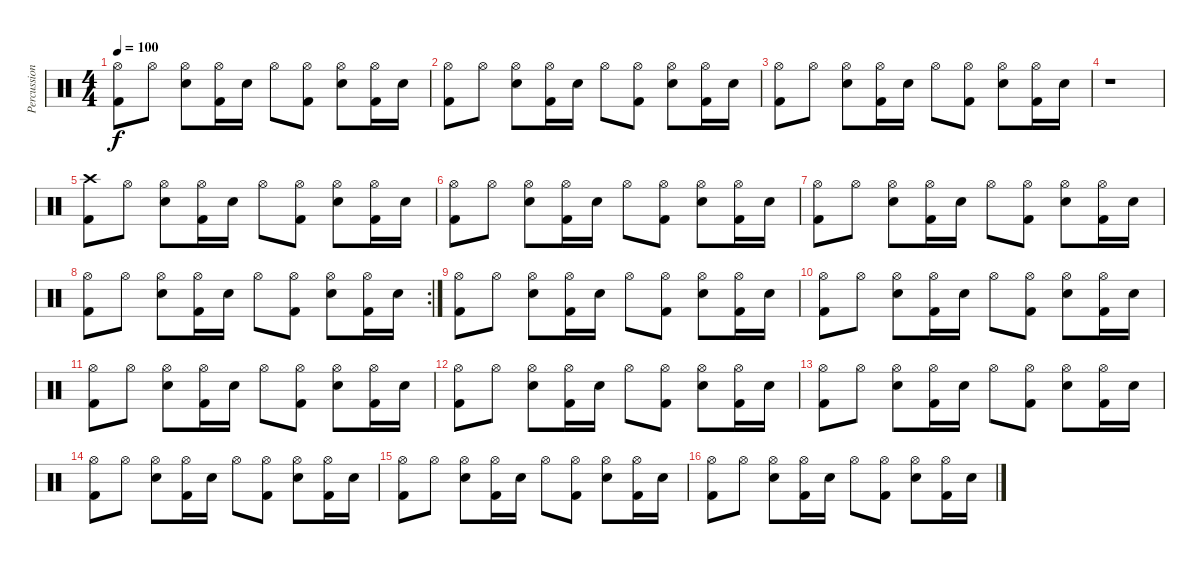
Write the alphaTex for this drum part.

\track ("Percussion" "Percussion") {instrument percussion}
\staff {score}
\articulation defaults
\ts (4 4)
\tempo 100
\clef neutral
\ks c
("Hi-Hat (open)" "Kick (hit) 2").8{dy f} "Hi-Hat (open)".8 ("Hi-Hat (open)" "Electric Snare (hit)").8 ("Hi-Hat (open)" "Kick (hit) 2").16 "Electric Snare (hit)".16 "Hi-Hat (open)".8 ("Hi-Hat (open)" "Kick (hit) 2").8 ("Hi-Hat (open)" "Electric Snare (hit)").8 ("Hi-Hat (open)" "Kick (hit) 2").16 "Electric Snare (hit)".16 |
("Hi-Hat (open)" "Kick (hit) 2").8 "Hi-Hat (open)".8 ("Hi-Hat (open)" "Electric Snare (hit)").8 ("Hi-Hat (open)" "Kick (hit) 2").16 "Electric Snare (hit)".16 "Hi-Hat (open)".8 ("Hi-Hat (open)" "Kick (hit) 2").8 ("Hi-Hat (open)" "Electric Snare (hit)").8 ("Hi-Hat (open)" "Kick (hit) 2").16 "Electric Snare (hit)".16 |
("Hi-Hat (open)" "Kick (hit) 2").8 "Hi-Hat (open)".8 ("Hi-Hat (open)" "Electric Snare (hit)").8 ("Hi-Hat (open)" "Kick (hit) 2").16 "Electric Snare (hit)".16 "Hi-Hat (open)".8 ("Hi-Hat (open)" "Kick (hit) 2").8 ("Hi-Hat (open)" "Electric Snare (hit)").8 ("Hi-Hat (open)" "Kick (hit) 2").16 "Electric Snare (hit)".16 |
r.1 |
("Crash high (hit)" "Kick (hit) 2").8 "Hi-Hat (open)".8 ("Hi-Hat (open)" "Electric Snare (hit)").8 ("Hi-Hat (open)" "Kick (hit) 2").16 "Electric Snare (hit)".16 "Hi-Hat (open)".8 ("Hi-Hat (open)" "Kick (hit) 2").8 ("Hi-Hat (open)" "Electric Snare (hit)").8 ("Hi-Hat (open)" "Kick (hit) 2").16 "Electric Snare (hit)".16 |
("Hi-Hat (open)" "Kick (hit) 2").8 "Hi-Hat (open)".8 ("Hi-Hat (open)" "Electric Snare (hit)").8 ("Hi-Hat (open)" "Kick (hit) 2").16 "Electric Snare (hit)".16 "Hi-Hat (open)".8 ("Hi-Hat (open)" "Kick (hit) 2").8 ("Hi-Hat (open)" "Electric Snare (hit)").8 ("Hi-Hat (open)" "Kick (hit) 2").16 "Electric Snare (hit)".16 |
("Hi-Hat (open)" "Kick (hit) 2").8 "Hi-Hat (open)".8 ("Hi-Hat (open)" "Electric Snare (hit)").8 ("Hi-Hat (open)" "Kick (hit) 2").16 "Electric Snare (hit)".16 "Hi-Hat (open)".8 ("Hi-Hat (open)" "Kick (hit) 2").8 ("Hi-Hat (open)" "Electric Snare (hit)").8 ("Hi-Hat (open)" "Kick (hit) 2").16 "Electric Snare (hit)".16 |
\rc 2
("Hi-Hat (open)" "Kick (hit) 2").8 "Hi-Hat (open)".8 ("Hi-Hat (open)" "Electric Snare (hit)").8 ("Hi-Hat (open)" "Kick (hit) 2").16 "Electric Snare (hit)".16 "Hi-Hat (open)".8 ("Hi-Hat (open)" "Kick (hit) 2").8 ("Hi-Hat (open)" "Electric Snare (hit)").8 ("Hi-Hat (open)" "Kick (hit) 2").16 "Electric Snare (hit)".16 |
("Hi-Hat (open)" "Kick (hit) 2").8 "Hi-Hat (open)".8 ("Hi-Hat (open)" "Electric Snare (hit)").8 ("Hi-Hat (open)" "Kick (hit) 2").16 "Electric Snare (hit)".16 "Hi-Hat (open)".8 ("Hi-Hat (open)" "Kick (hit) 2").8 ("Hi-Hat (open)" "Electric Snare (hit)").8 ("Hi-Hat (open)" "Kick (hit) 2").16 "Electric Snare (hit)".16 |
("Hi-Hat (open)" "Kick (hit) 2").8 "Hi-Hat (open)".8 ("Hi-Hat (open)" "Electric Snare (hit)").8 ("Hi-Hat (open)" "Kick (hit) 2").16 "Electric Snare (hit)".16 "Hi-Hat (open)".8 ("Hi-Hat (open)" "Kick (hit) 2").8 ("Hi-Hat (open)" "Electric Snare (hit)").8 ("Hi-Hat (open)" "Kick (hit) 2").16 "Electric Snare (hit)".16 |
("Hi-Hat (open)" "Kick (hit) 2").8 "Hi-Hat (open)".8 ("Hi-Hat (open)" "Electric Snare (hit)").8 ("Hi-Hat (open)" "Kick (hit) 2").16 "Electric Snare (hit)".16 "Hi-Hat (open)".8 ("Hi-Hat (open)" "Kick (hit) 2").8 ("Hi-Hat (open)" "Electric Snare (hit)").8 ("Hi-Hat (open)" "Kick (hit) 2").16 "Electric Snare (hit)".16 |
("Hi-Hat (open)" "Kick (hit) 2").8 "Hi-Hat (open)".8 ("Hi-Hat (open)" "Electric Snare (hit)").8 ("Hi-Hat (open)" "Kick (hit) 2").16 "Electric Snare (hit)".16 "Hi-Hat (open)".8 ("Hi-Hat (open)" "Kick (hit) 2").8 ("Hi-Hat (open)" "Electric Snare (hit)").8 ("Hi-Hat (open)" "Kick (hit) 2").16 "Electric Snare (hit)".16 |
("Hi-Hat (open)" "Kick (hit) 2").8 "Hi-Hat (open)".8 ("Hi-Hat (open)" "Electric Snare (hit)").8 ("Hi-Hat (open)" "Kick (hit) 2").16 "Electric Snare (hit)".16 "Hi-Hat (open)".8 ("Hi-Hat (open)" "Kick (hit) 2").8 ("Hi-Hat (open)" "Electric Snare (hit)").8 ("Hi-Hat (open)" "Kick (hit) 2").16 "Electric Snare (hit)".16 |
("Hi-Hat (open)" "Kick (hit) 2").8 "Hi-Hat (open)".8 ("Hi-Hat (open)" "Electric Snare (hit)").8 ("Hi-Hat (open)" "Kick (hit) 2").16 "Electric Snare (hit)".16 "Hi-Hat (open)".8 ("Hi-Hat (open)" "Kick (hit) 2").8 ("Hi-Hat (open)" "Electric Snare (hit)").8 ("Hi-Hat (open)" "Kick (hit) 2").16 "Electric Snare (hit)".16 |
("Hi-Hat (open)" "Kick (hit) 2").8 "Hi-Hat (open)".8 ("Hi-Hat (open)" "Electric Snare (hit)").8 ("Hi-Hat (open)" "Kick (hit) 2").16 "Electric Snare (hit)".16 "Hi-Hat (open)".8 ("Hi-Hat (open)" "Kick (hit) 2").8 ("Hi-Hat (open)" "Electric Snare (hit)").8 ("Hi-Hat (open)" "Kick (hit) 2").16 "Electric Snare (hit)".16 |
("Hi-Hat (open)" "Kick (hit) 2").8 "Hi-Hat (open)".8 ("Hi-Hat (open)" "Electric Snare (hit)").8 ("Hi-Hat (open)" "Kick (hit) 2").16 "Electric Snare (hit)".16 "Hi-Hat (open)".8 ("Hi-Hat (open)" "Kick (hit) 2").8 ("Hi-Hat (open)" "Electric Snare (hit)").8 ("Hi-Hat (open)" "Kick (hit) 2").16 "Electric Snare (hit)".16
